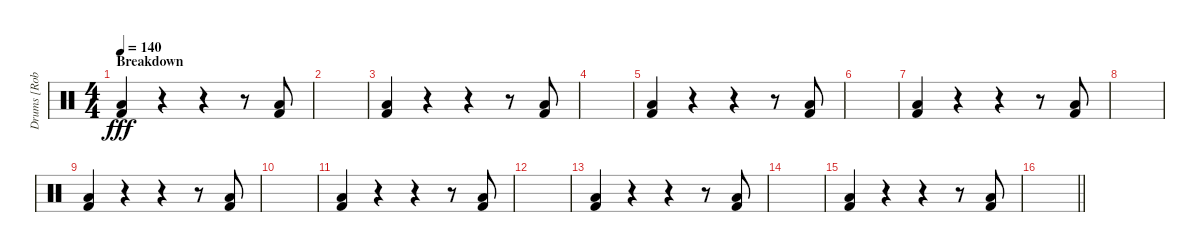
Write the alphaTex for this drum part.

\track ("Drums [Rob Bourdon]" "Drums [Rob") {instrument percussion}
\staff {score}
\articulation defaults
\ts (4 4)
\section ("" "Breakdown")
\tempo 140
\clef neutral
\ks c
("Low Floor Tom (hit)" "Kick (hit) 2").4{dy fff} r.4 r.4 r.8 ("Low Floor Tom (hit)" "Kick (hit) 2").8 |
|
("Low Floor Tom (hit)" "Kick (hit) 2").4 r.4 r.4 r.8 ("Low Floor Tom (hit)" "Kick (hit) 2").8 |
|
("Low Floor Tom (hit)" "Kick (hit) 2").4 r.4 r.4 r.8 ("Low Floor Tom (hit)" "Kick (hit) 2").8 |
|
("Low Floor Tom (hit)" "Kick (hit) 2").4 r.4 r.4 r.8 ("Low Floor Tom (hit)" "Kick (hit) 2").8 |
|
("Low Floor Tom (hit)" "Kick (hit) 2").4 r.4 r.4 r.8 ("Low Floor Tom (hit)" "Kick (hit) 2").8 |
|
("Low Floor Tom (hit)" "Kick (hit) 2").4 r.4 r.4 r.8 ("Low Floor Tom (hit)" "Kick (hit) 2").8 |
|
("Low Floor Tom (hit)" "Kick (hit) 2").4 r.4 r.4 r.8 ("Low Floor Tom (hit)" "Kick (hit) 2").8 |
|
("Low Floor Tom (hit)" "Kick (hit) 2").4 r.4 r.4 r.8 ("Low Floor Tom (hit)" "Kick (hit) 2").8 |
\barLineRight lightlight
